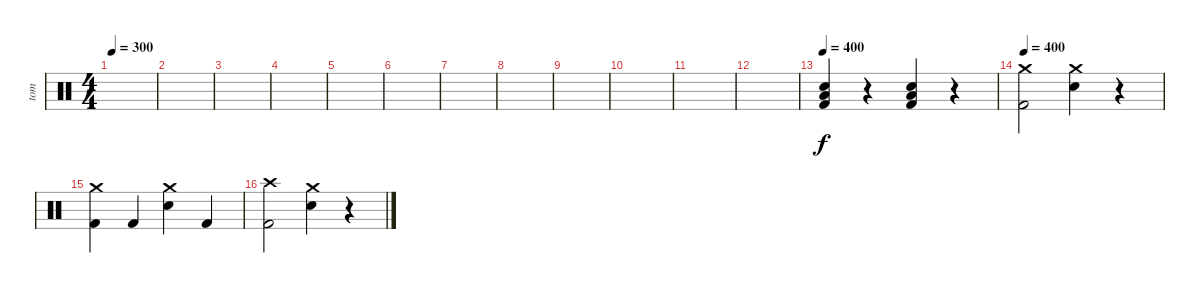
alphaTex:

\track ("tom" "tom") {instrument percussion}
\staff {score}
\articulation defaults
\ts (4 4)
\tempo 300
\clef neutral
\ks c
|
|
|
|
|
|
|
|
|
|
|
|
\tempo 400
("Kick (hit) 2" "Low Tom (hit)" "Electric Snare (hit)").4 r.4 ("Kick (hit) 2" "Low Tom (hit)" "Electric Snare (hit)").4 r.4 |
\tempo 400
("Crash medium (hit)" "Kick (hit) 2").2 ("Crash medium (hit)" "Electric Snare (hit)").4 r.4 |
("Crash medium (hit)" "Kick (hit) 2").4 "Kick (hit) 2".4 ("Crash medium (hit)" "Electric Snare (hit)").4 "Kick (hit) 2".4 |
("Crash high (hit)" "Kick (hit) 2").2 ("Crash medium (hit)" "Electric Snare (hit)").4 r.4
